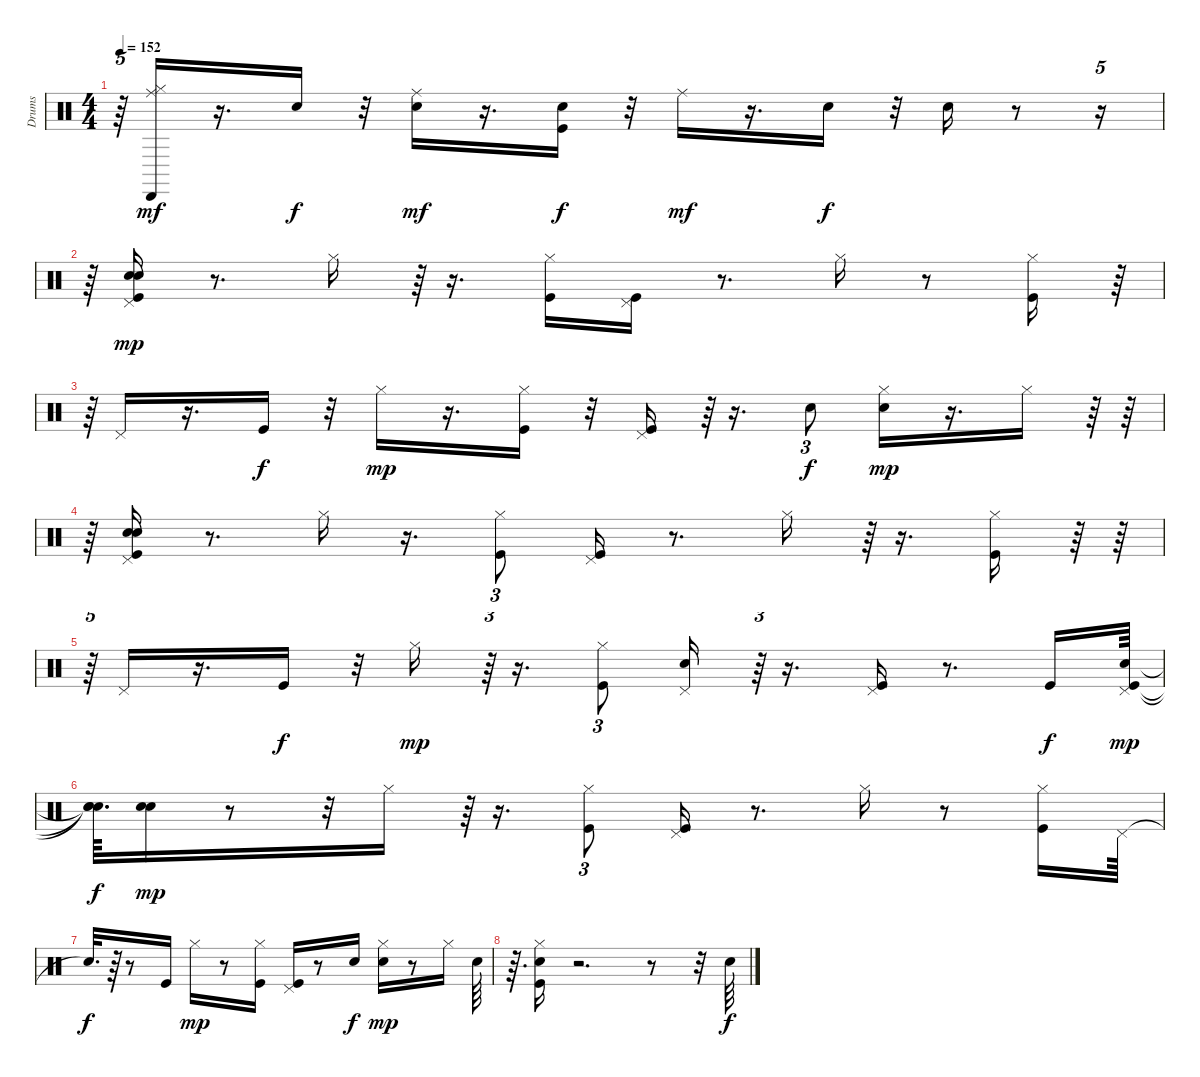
\track ("Drums" "Drums") {instrument percussion}
\staff {score}
\articulation defaults
\ts (4 4)
\tempo 152
\clef neutral
\ks c
r.64{tu (5 4) dy mf} ("Hi-Hat (closed)" "Ride (middle)" "Cabasa (hit)").16 r.16{d} "Snare (hit) 2".16{dy f} r.32 ("Snare (hit) 2" "Ride (middle)").16{dy mf} r.16{d} ("Kick (hit)" "Snare (hit) 2").16{dy f} r.32 "Ride (middle)".16{dy mf} r.16{d} "Snare (hit) 2".16{dy f} r.32 "Snare (hit) 2".16 r.8 r.16{tu (5 4)} |
r.64{tu (5 4)} ("Kick (hit)" "Snare (hit) 2" "Pedal Hi-Hat (hit)" "Snare (hit) 2").16{dy mp} r.8{d} "Hi-Hat (closed)".16 r.64{tu (3 2)} r.16{d} ("Kick (hit)" "Hi-Hat (closed)").16 ("Kick (hit)" "Pedal Hi-Hat (hit)").16 r.8{d} "Hi-Hat (closed)".16 r.8 ("Kick (hit)" "Hi-Hat (closed)").16 r.64 |
r.64{tu (5 4)} "Pedal Hi-Hat (hit)".16 r.16{d} "Kick (hit)".16{dy f} r.32 "Hi-Hat (closed)".16{dy mp} r.16{d} ("Kick (hit)" "Hi-Hat (closed)").16 r.32 ("Kick (hit)" "Pedal Hi-Hat (hit)").16 r.64{tu (3 2)} r.16{d} "Snare (hit) 2".8{tu (3 2) dy f} ("Hi-Hat (closed)" "Snare (hit) 2").16{dy mp} r.16{d} "Hi-Hat (closed)".16 r.64 r.64 |
r.64{tu (5 4)} ("Snare (hit) 2" "Kick (hit)" "Pedal Hi-Hat (hit)" "Snare (hit) 2").16 r.8{d} "Hi-Hat (closed)".16 r.16{d} ("Kick (hit)" "Hi-Hat (closed)").8{tu (3 2)} ("Kick (hit)" "Pedal Hi-Hat (hit)").16 r.8{d} "Hi-Hat (closed)".16 r.64{tu (3 2)} r.16{d} ("Kick (hit)" "Hi-Hat (closed)").16 r.64 r.64 |
r.64{tu (5 4)} "Pedal Hi-Hat (hit)".16 r.16{d} "Kick (hit)".16{dy f} r.32 "Hi-Hat (closed)".16{dy mp} r.64{tu (3 2)} r.16{d} ("Kick (hit)" "Hi-Hat (closed)").8{tu (3 2)} ("Snare (hit) 2" "Pedal Hi-Hat (hit)").16 r.64{tu (3 2)} r.16{d} ("Kick (hit)" "Pedal Hi-Hat (hit)").16 r.8{d} "Kick (hit)".16{dy f} ("Snare (hit) 2" "Kick (hit)" "Pedal Hi-Hat (hit)").64{dy mp} |
("Snare (hit)"{t} "Snare (hit)"{t} "Snare (hit)"{t}).64{d dy f} ("Snare (hit) 2" "Snare (hit) 2").16{dy mp} r.8 r.32 "Hi-Hat (closed)".16 r.64{tu (3 2)} r.16{d} ("Kick (hit)" "Hi-Hat (closed)").8{tu (3 2)} ("Kick (hit)" "Pedal Hi-Hat (hit)").16 r.8{d} "Hi-Hat (closed)".16 r.8 ("Kick (hit)" "Hi-Hat (closed)").16 "Pedal Hi-Hat (hit)".64 |
"Snare (hit)"{t}.32{d dy f} r.64 r.8 "Kick (hit)".16 "Hi-Hat (closed)".16{dy mp} r.8 ("Kick (hit)" "Hi-Hat (closed)").16 ("Kick (hit)" "Pedal Hi-Hat (hit)").16 r.8 "Snare (hit) 2".16{dy f} ("Hi-Hat (closed)" "Snare (hit) 2").16{dy mp} r.8 "Hi-Hat (closed)".16 "Snare (hit) 2".64 |
r.64{d} ("Kick (hit)" "Snare (hit) 2" "Hi-Hat (closed)").16 r.2{d} r.8 r.32 "Snare (hit) 2".64{dy f}
